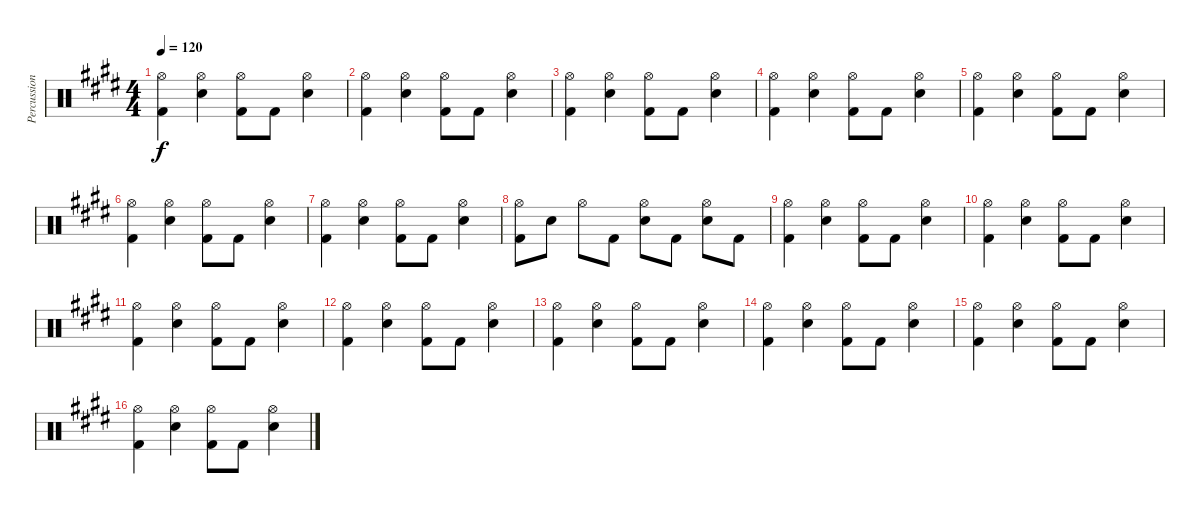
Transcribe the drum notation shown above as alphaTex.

\track ("Percussion" "Percussion") {instrument percussion}
\staff {score}
\articulation defaults
\ts (4 4)
\tempo 120
\clef neutral
\ks e
("Hi-Hat (open)" "Kick (hit) 2").4{dy f} ("Hi-Hat (open)" "Snare (hit) 2").4 ("Hi-Hat (open)" "Kick (hit) 2").8 "Kick (hit) 2".8 ("Hi-Hat (open)" "Snare (hit) 2").4 |
("Hi-Hat (open)" "Kick (hit) 2").4 ("Hi-Hat (open)" "Snare (hit) 2").4 ("Hi-Hat (open)" "Kick (hit) 2").8 "Kick (hit) 2".8 ("Hi-Hat (open)" "Snare (hit) 2").4 |
("Hi-Hat (open)" "Kick (hit) 2").4 ("Hi-Hat (open)" "Snare (hit) 2").4 ("Hi-Hat (open)" "Kick (hit) 2").8 "Kick (hit) 2".8 ("Hi-Hat (open)" "Snare (hit) 2").4 |
("Hi-Hat (open)" "Kick (hit) 2").4 ("Hi-Hat (open)" "Snare (hit) 2").4 ("Hi-Hat (open)" "Kick (hit) 2").8 "Kick (hit) 2".8 ("Hi-Hat (open)" "Snare (hit) 2").4 |
("Hi-Hat (open)" "Kick (hit) 2").4 ("Hi-Hat (open)" "Snare (hit) 2").4 ("Hi-Hat (open)" "Kick (hit) 2").8 "Kick (hit) 2".8 ("Hi-Hat (open)" "Snare (hit) 2").4 |
("Hi-Hat (open)" "Kick (hit) 2").4 ("Hi-Hat (open)" "Snare (hit) 2").4 ("Hi-Hat (open)" "Kick (hit) 2").8 "Kick (hit) 2".8 ("Hi-Hat (open)" "Snare (hit) 2").4 |
("Hi-Hat (open)" "Kick (hit) 2").4 ("Hi-Hat (open)" "Snare (hit) 2").4 ("Hi-Hat (open)" "Kick (hit) 2").8 "Kick (hit) 2".8 ("Hi-Hat (open)" "Snare (hit) 2").4 |
("Hi-Hat (open)" "Kick (hit) 2").8 "Snare (hit) 2".8 "Hi-Hat (open)".8 "Kick (hit) 2".8 ("Hi-Hat (open)" "Snare (hit) 2").8 "Kick (hit) 2".8 ("Hi-Hat (open)" "Snare (hit) 2").8 "Kick (hit) 2".8 |
\ks c#minor
("Hi-Hat (open)" "Kick (hit) 2").4 ("Hi-Hat (open)" "Snare (hit) 2").4 ("Hi-Hat (open)" "Kick (hit) 2").8 "Kick (hit) 2".8 ("Hi-Hat (open)" "Snare (hit) 2").4 |
\ks e
("Hi-Hat (open)" "Kick (hit) 2").4 ("Hi-Hat (open)" "Snare (hit) 2").4 ("Hi-Hat (open)" "Kick (hit) 2").8 "Kick (hit) 2".8 ("Hi-Hat (open)" "Snare (hit) 2").4 |
\ks c#minor
("Hi-Hat (open)" "Kick (hit) 2").4 ("Hi-Hat (open)" "Snare (hit) 2").4 ("Hi-Hat (open)" "Kick (hit) 2").8 "Kick (hit) 2".8 ("Hi-Hat (open)" "Snare (hit) 2").4 |
\ks e
("Hi-Hat (open)" "Kick (hit) 2").4 ("Hi-Hat (open)" "Snare (hit) 2").4 ("Hi-Hat (open)" "Kick (hit) 2").8 "Kick (hit) 2".8 ("Hi-Hat (open)" "Snare (hit) 2").4 |
\ks c#minor
("Hi-Hat (open)" "Kick (hit) 2").4 ("Hi-Hat (open)" "Snare (hit) 2").4 ("Hi-Hat (open)" "Kick (hit) 2").8 "Kick (hit) 2".8 ("Hi-Hat (open)" "Snare (hit) 2").4 |
\ks e
("Hi-Hat (open)" "Kick (hit) 2").4 ("Hi-Hat (open)" "Snare (hit) 2").4 ("Hi-Hat (open)" "Kick (hit) 2").8 "Kick (hit) 2".8 ("Hi-Hat (open)" "Snare (hit) 2").4 |
\ks c#minor
("Hi-Hat (open)" "Kick (hit) 2").4 ("Hi-Hat (open)" "Snare (hit) 2").4 ("Hi-Hat (open)" "Kick (hit) 2").8 "Kick (hit) 2".8 ("Hi-Hat (open)" "Snare (hit) 2").4 |
\ks e
("Hi-Hat (open)" "Kick (hit) 2").4 ("Hi-Hat (open)" "Snare (hit) 2").4 ("Hi-Hat (open)" "Kick (hit) 2").8 "Kick (hit) 2".8 ("Hi-Hat (open)" "Snare (hit) 2").4
